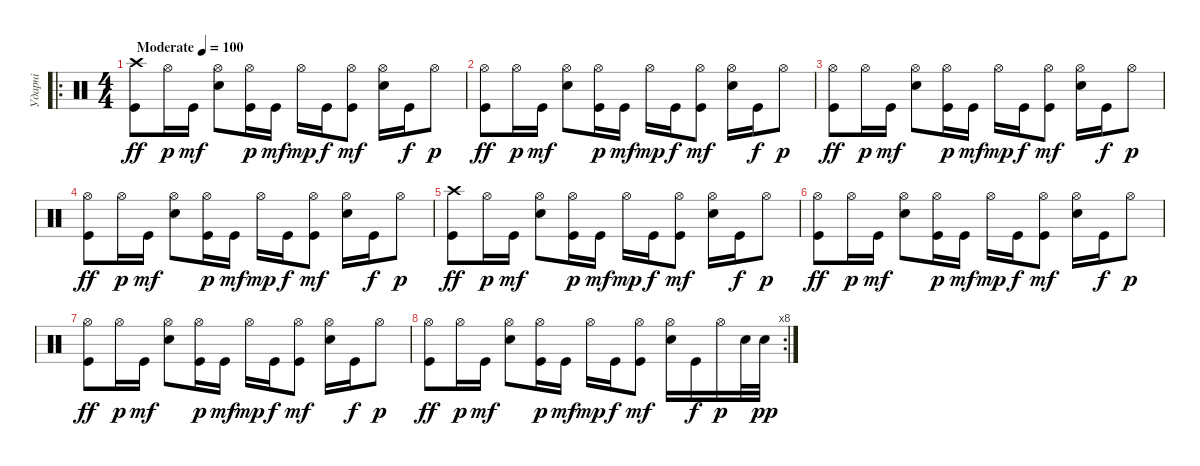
\track ("Ударні" "Ударні") {instrument percussion}
\staff {score}
\articulation defaults
\ro
\ts (4 4)
\tempo (100 "Moderate")
\clef neutral
\ks c
("Crash high (hit)" "Kick (hit)").8{dy ff} "Hi-Hat (open)".16{dy p} "Kick (hit)".16{dy mf} ("Hi-Hat (open)" "Snare (hit) 2").8 ("Hi-Hat (open)" "Kick (hit)").16{dy p} "Kick (hit)".16{dy mf} "Hi-Hat (open)".16{dy mp} "Kick (hit)".16{dy f} ("Hi-Hat (open)" "Kick (hit)").8{dy mf} ("Hi-Hat (open)" "Snare (hit) 2").16 "Kick (hit)".16{dy f} "Hi-Hat (open)".8{dy p} |
("Hi-Hat (open)" "Kick (hit)").8{dy ff} "Hi-Hat (open)".16{dy p} "Kick (hit)".16{dy mf} ("Hi-Hat (open)" "Snare (hit) 2").8 ("Hi-Hat (open)" "Kick (hit)").16{dy p} "Kick (hit)".16{dy mf} "Hi-Hat (open)".16{dy mp} "Kick (hit)".16{dy f} ("Hi-Hat (open)" "Kick (hit)").8{dy mf} ("Hi-Hat (open)" "Snare (hit) 2").16 "Kick (hit)".16{dy f} "Hi-Hat (open)".8{dy p} |
("Hi-Hat (open)" "Kick (hit)").8{dy ff} "Hi-Hat (open)".16{dy p} "Kick (hit)".16{dy mf} ("Hi-Hat (open)" "Snare (hit) 2").8 ("Hi-Hat (open)" "Kick (hit)").16{dy p} "Kick (hit)".16{dy mf} "Hi-Hat (open)".16{dy mp} "Kick (hit)".16{dy f} ("Hi-Hat (open)" "Kick (hit)").8{dy mf} ("Hi-Hat (open)" "Snare (hit) 2").16 "Kick (hit)".16{dy f} "Hi-Hat (open)".8{dy p} |
("Hi-Hat (open)" "Kick (hit)").8{dy ff} "Hi-Hat (open)".16{dy p} "Kick (hit)".16{dy mf} ("Hi-Hat (open)" "Snare (hit) 2").8 ("Hi-Hat (open)" "Kick (hit)").16{dy p} "Kick (hit)".16{dy mf} "Hi-Hat (open)".16{dy mp} "Kick (hit)".16{dy f} ("Hi-Hat (open)" "Kick (hit)").8{dy mf} ("Hi-Hat (open)" "Snare (hit) 2").16 "Kick (hit)".16{dy f} "Hi-Hat (open)".8{dy p} |
("Crash high (hit)" "Kick (hit)").8{dy ff} "Hi-Hat (open)".16{dy p} "Kick (hit)".16{dy mf} ("Hi-Hat (open)" "Snare (hit) 2").8 ("Hi-Hat (open)" "Kick (hit)").16{dy p} "Kick (hit)".16{dy mf} "Hi-Hat (open)".16{dy mp} "Kick (hit)".16{dy f} ("Hi-Hat (open)" "Kick (hit)").8{dy mf} ("Hi-Hat (open)" "Snare (hit) 2").16 "Kick (hit)".16{dy f} "Hi-Hat (open)".8{dy p} |
("Hi-Hat (open)" "Kick (hit)").8{dy ff} "Hi-Hat (open)".16{dy p} "Kick (hit)".16{dy mf} ("Hi-Hat (open)" "Snare (hit) 2").8 ("Hi-Hat (open)" "Kick (hit)").16{dy p} "Kick (hit)".16{dy mf} "Hi-Hat (open)".16{dy mp} "Kick (hit)".16{dy f} ("Hi-Hat (open)" "Kick (hit)").8{dy mf} ("Hi-Hat (open)" "Snare (hit) 2").16 "Kick (hit)".16{dy f} "Hi-Hat (open)".8{dy p} |
("Hi-Hat (open)" "Kick (hit)").8{dy ff} "Hi-Hat (open)".16{dy p} "Kick (hit)".16{dy mf} ("Hi-Hat (open)" "Snare (hit) 2").8 ("Hi-Hat (open)" "Kick (hit)").16{dy p} "Kick (hit)".16{dy mf} "Hi-Hat (open)".16{dy mp} "Kick (hit)".16{dy f} ("Hi-Hat (open)" "Kick (hit)").8{dy mf} ("Hi-Hat (open)" "Snare (hit) 2").16 "Kick (hit)".16{dy f} "Hi-Hat (open)".8{dy p} |
\rc 8
("Hi-Hat (open)" "Kick (hit)").8{dy ff} "Hi-Hat (open)".16{dy p} "Kick (hit)".16{dy mf} ("Hi-Hat (open)" "Snare (hit) 2").8 ("Hi-Hat (open)" "Kick (hit)").16{dy p} "Kick (hit)".16{dy mf} "Hi-Hat (open)".16{dy mp} "Kick (hit)".16{dy f} ("Hi-Hat (open)" "Kick (hit)").8{dy mf} ("Hi-Hat (open)" "Snare (hit) 2").16 "Kick (hit)".16{dy f} "Hi-Hat (open)".16{dy p} "Snare (hit) 2".32 "Snare (hit) 2".32{dy pp}
